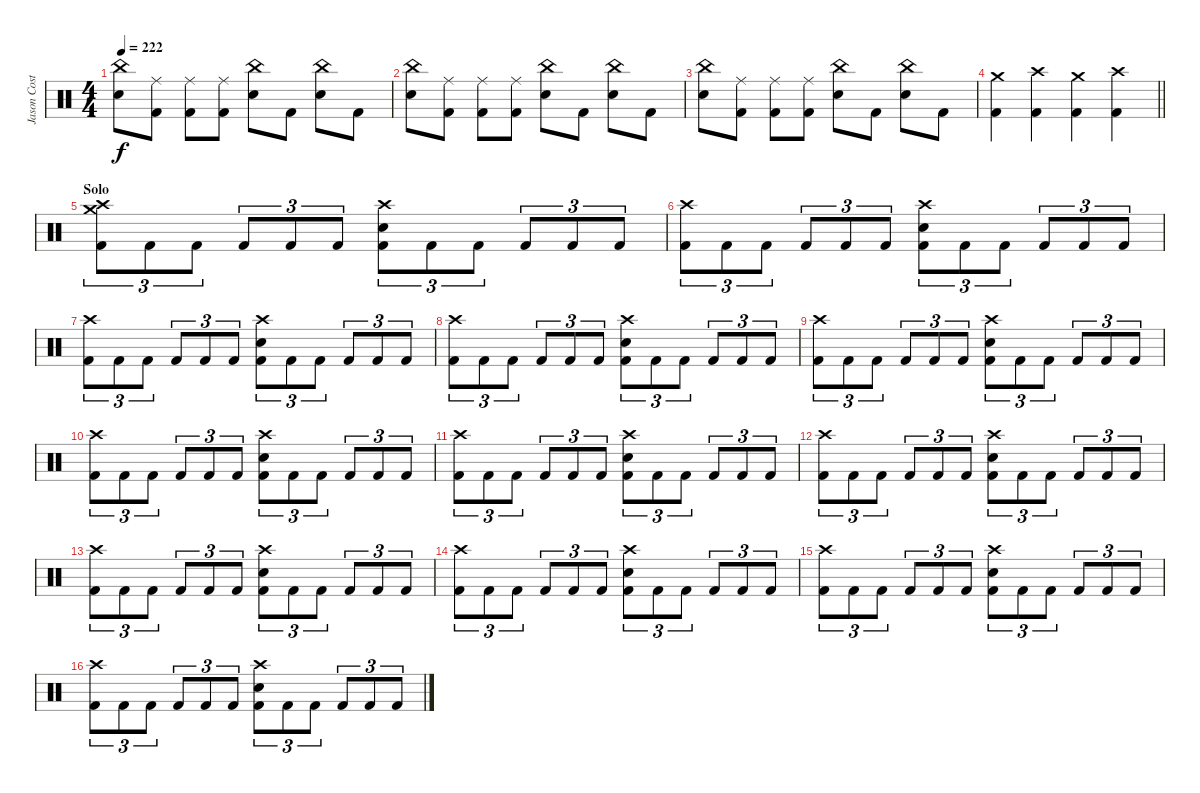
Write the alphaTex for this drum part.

\track ("Jason Costa" "Jason Cost") {instrument percussion}
\staff {score}
\articulation defaults
\ts (4 4)
\tempo 222
\clef neutral
\ks c
("China (hit)" "Electric Snare (hit)").8{dy f} ("Ride (middle)" "Kick (hit) 2").8 ("Ride (middle)" "Kick (hit) 2").8 ("Ride (middle)" "Kick (hit) 2").8 ("China (hit)" "Electric Snare (hit)").8 "Kick (hit) 2".8 ("China (hit)" "Electric Snare (hit)").8 "Kick (hit) 2".8 |
("China (hit)" "Electric Snare (hit)").8 ("Ride (middle)" "Kick (hit) 2").8 ("Ride (middle)" "Kick (hit) 2").8 ("Ride (middle)" "Kick (hit) 2").8 ("China (hit)" "Electric Snare (hit)").8 "Kick (hit) 2".8 ("China (hit)" "Electric Snare (hit)").8 "Kick (hit) 2".8 |
("China (hit)" "Electric Snare (hit)").8 ("Ride (middle)" "Kick (hit) 2").8 ("Ride (middle)" "Kick (hit) 2").8 ("Ride (middle)" "Kick (hit) 2").8 ("China (hit)" "Electric Snare (hit)").8 "Kick (hit) 2".8 ("China (hit)" "Electric Snare (hit)").8 "Kick (hit) 2".8 |
\barLineRight lightlight
("Crash medium (hit)" "Kick (hit) 2").4 ("Crash high (hit)" "Kick (hit) 2").4 ("Crash medium (hit)" "Kick (hit) 2").4 ("Crash high (hit)" "Kick (hit) 2").4 |
\section ("" "Solo")
("Crash high (hit)" "Crash medium (hit)" "Kick (hit) 2").8{tu (3 2)} "Kick (hit) 2".8{tu (3 2)} "Kick (hit) 2".8{tu (3 2)} "Kick (hit) 2".8{tu (3 2)} "Kick (hit) 2".8{tu (3 2)} "Kick (hit) 2".8{tu (3 2)} ("Crash high (hit)" "Electric Snare (hit)" "Kick (hit) 2").8{tu (3 2)} "Kick (hit) 2".8{tu (3 2)} "Kick (hit) 2".8{tu (3 2)} "Kick (hit) 2".8{tu (3 2)} "Kick (hit) 2".8{tu (3 2)} "Kick (hit) 2".8{tu (3 2)} |
("Crash high (hit)" "Kick (hit) 2").8{tu (3 2)} "Kick (hit) 2".8{tu (3 2)} "Kick (hit) 2".8{tu (3 2)} "Kick (hit) 2".8{tu (3 2)} "Kick (hit) 2".8{tu (3 2)} "Kick (hit) 2".8{tu (3 2)} ("Crash high (hit)" "Electric Snare (hit)" "Kick (hit) 2").8{tu (3 2)} "Kick (hit) 2".8{tu (3 2)} "Kick (hit) 2".8{tu (3 2)} "Kick (hit) 2".8{tu (3 2)} "Kick (hit) 2".8{tu (3 2)} "Kick (hit) 2".8{tu (3 2)} |
("Crash high (hit)" "Kick (hit) 2").8{tu (3 2)} "Kick (hit) 2".8{tu (3 2)} "Kick (hit) 2".8{tu (3 2)} "Kick (hit) 2".8{tu (3 2)} "Kick (hit) 2".8{tu (3 2)} "Kick (hit) 2".8{tu (3 2)} ("Crash high (hit)" "Electric Snare (hit)" "Kick (hit) 2").8{tu (3 2)} "Kick (hit) 2".8{tu (3 2)} "Kick (hit) 2".8{tu (3 2)} "Kick (hit) 2".8{tu (3 2)} "Kick (hit) 2".8{tu (3 2)} "Kick (hit) 2".8{tu (3 2)} |
("Crash high (hit)" "Kick (hit) 2").8{tu (3 2)} "Kick (hit) 2".8{tu (3 2)} "Kick (hit) 2".8{tu (3 2)} "Kick (hit) 2".8{tu (3 2)} "Kick (hit) 2".8{tu (3 2)} "Kick (hit) 2".8{tu (3 2)} ("Crash high (hit)" "Electric Snare (hit)" "Kick (hit) 2").8{tu (3 2)} "Kick (hit) 2".8{tu (3 2)} "Kick (hit) 2".8{tu (3 2)} "Kick (hit) 2".8{tu (3 2)} "Kick (hit) 2".8{tu (3 2)} "Kick (hit) 2".8{tu (3 2)} |
("Crash high (hit)" "Kick (hit) 2").8{tu (3 2)} "Kick (hit) 2".8{tu (3 2)} "Kick (hit) 2".8{tu (3 2)} "Kick (hit) 2".8{tu (3 2)} "Kick (hit) 2".8{tu (3 2)} "Kick (hit) 2".8{tu (3 2)} ("Crash high (hit)" "Electric Snare (hit)" "Kick (hit) 2").8{tu (3 2)} "Kick (hit) 2".8{tu (3 2)} "Kick (hit) 2".8{tu (3 2)} "Kick (hit) 2".8{tu (3 2)} "Kick (hit) 2".8{tu (3 2)} "Kick (hit) 2".8{tu (3 2)} |
("Crash high (hit)" "Kick (hit) 2").8{tu (3 2)} "Kick (hit) 2".8{tu (3 2)} "Kick (hit) 2".8{tu (3 2)} "Kick (hit) 2".8{tu (3 2)} "Kick (hit) 2".8{tu (3 2)} "Kick (hit) 2".8{tu (3 2)} ("Crash high (hit)" "Electric Snare (hit)" "Kick (hit) 2").8{tu (3 2)} "Kick (hit) 2".8{tu (3 2)} "Kick (hit) 2".8{tu (3 2)} "Kick (hit) 2".8{tu (3 2)} "Kick (hit) 2".8{tu (3 2)} "Kick (hit) 2".8{tu (3 2)} |
("Crash high (hit)" "Kick (hit) 2").8{tu (3 2)} "Kick (hit) 2".8{tu (3 2)} "Kick (hit) 2".8{tu (3 2)} "Kick (hit) 2".8{tu (3 2)} "Kick (hit) 2".8{tu (3 2)} "Kick (hit) 2".8{tu (3 2)} ("Crash high (hit)" "Electric Snare (hit)" "Kick (hit) 2").8{tu (3 2)} "Kick (hit) 2".8{tu (3 2)} "Kick (hit) 2".8{tu (3 2)} "Kick (hit) 2".8{tu (3 2)} "Kick (hit) 2".8{tu (3 2)} "Kick (hit) 2".8{tu (3 2)} |
("Crash high (hit)" "Kick (hit) 2").8{tu (3 2)} "Kick (hit) 2".8{tu (3 2)} "Kick (hit) 2".8{tu (3 2)} "Kick (hit) 2".8{tu (3 2)} "Kick (hit) 2".8{tu (3 2)} "Kick (hit) 2".8{tu (3 2)} ("Crash high (hit)" "Electric Snare (hit)" "Kick (hit) 2").8{tu (3 2)} "Kick (hit) 2".8{tu (3 2)} "Kick (hit) 2".8{tu (3 2)} "Kick (hit) 2".8{tu (3 2)} "Kick (hit) 2".8{tu (3 2)} "Kick (hit) 2".8{tu (3 2)} |
("Crash high (hit)" "Kick (hit) 2").8{tu (3 2)} "Kick (hit) 2".8{tu (3 2)} "Kick (hit) 2".8{tu (3 2)} "Kick (hit) 2".8{tu (3 2)} "Kick (hit) 2".8{tu (3 2)} "Kick (hit) 2".8{tu (3 2)} ("Crash high (hit)" "Electric Snare (hit)" "Kick (hit) 2").8{tu (3 2)} "Kick (hit) 2".8{tu (3 2)} "Kick (hit) 2".8{tu (3 2)} "Kick (hit) 2".8{tu (3 2)} "Kick (hit) 2".8{tu (3 2)} "Kick (hit) 2".8{tu (3 2)} |
("Crash high (hit)" "Kick (hit) 2").8{tu (3 2)} "Kick (hit) 2".8{tu (3 2)} "Kick (hit) 2".8{tu (3 2)} "Kick (hit) 2".8{tu (3 2)} "Kick (hit) 2".8{tu (3 2)} "Kick (hit) 2".8{tu (3 2)} ("Crash high (hit)" "Electric Snare (hit)" "Kick (hit) 2").8{tu (3 2)} "Kick (hit) 2".8{tu (3 2)} "Kick (hit) 2".8{tu (3 2)} "Kick (hit) 2".8{tu (3 2)} "Kick (hit) 2".8{tu (3 2)} "Kick (hit) 2".8{tu (3 2)} |
("Crash high (hit)" "Kick (hit) 2").8{tu (3 2)} "Kick (hit) 2".8{tu (3 2)} "Kick (hit) 2".8{tu (3 2)} "Kick (hit) 2".8{tu (3 2)} "Kick (hit) 2".8{tu (3 2)} "Kick (hit) 2".8{tu (3 2)} ("Crash high (hit)" "Electric Snare (hit)" "Kick (hit) 2").8{tu (3 2)} "Kick (hit) 2".8{tu (3 2)} "Kick (hit) 2".8{tu (3 2)} "Kick (hit) 2".8{tu (3 2)} "Kick (hit) 2".8{tu (3 2)} "Kick (hit) 2".8{tu (3 2)} |
("Crash high (hit)" "Kick (hit) 2").8{tu (3 2)} "Kick (hit) 2".8{tu (3 2)} "Kick (hit) 2".8{tu (3 2)} "Kick (hit) 2".8{tu (3 2)} "Kick (hit) 2".8{tu (3 2)} "Kick (hit) 2".8{tu (3 2)} ("Crash high (hit)" "Electric Snare (hit)" "Kick (hit) 2").8{tu (3 2)} "Kick (hit) 2".8{tu (3 2)} "Kick (hit) 2".8{tu (3 2)} "Kick (hit) 2".8{tu (3 2)} "Kick (hit) 2".8{tu (3 2)} "Kick (hit) 2".8{tu (3 2)}
